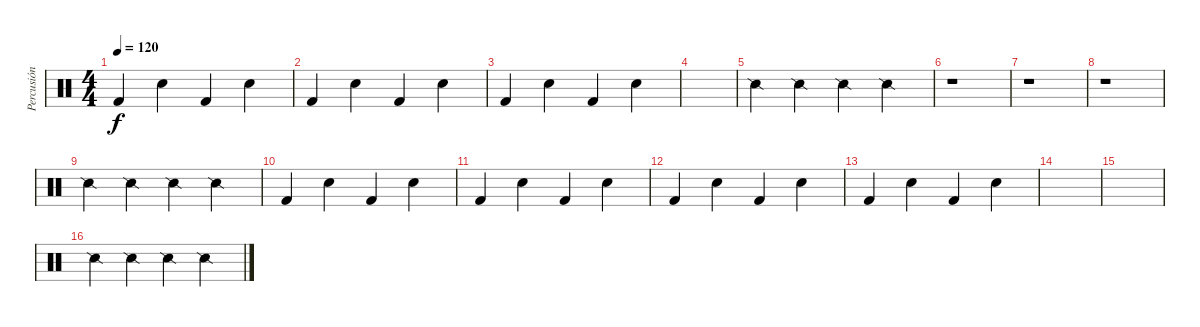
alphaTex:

\track ("Percusión" "Percusión") {instrument percussion}
\staff {score}
\articulation defaults
\ts (4 4)
\tempo 120
\clef neutral
\ks c "Kick (hit) 2".4{dy f} "Snare (hit) 2".4 "Kick (hit) 2".4 "Snare (hit) 2".4
|
"Kick (hit) 2".4 "Snare (hit) 2".4 "Kick (hit) 2".4 "Snare (hit) 2".4 |
"Kick (hit) 2".4 "Snare (hit) 2".4 "Kick (hit) 2".4 "Snare (hit) 2".4 |
|
"Snare (side stick) 2".4 "Snare (side stick) 2".4 "Snare (side stick) 2".4 "Snare (side stick) 2".4 |
r.1 |
r.1 |
r.1 |
"Snare (side stick) 2".4 "Snare (side stick) 2".4 "Snare (side stick) 2".4 "Snare (side stick) 2".4 |
"Kick (hit) 2".4 "Snare (hit) 2".4 "Kick (hit) 2".4 "Snare (hit) 2".4 |
"Kick (hit) 2".4 "Snare (hit) 2".4 "Kick (hit) 2".4 "Snare (hit) 2".4 |
"Kick (hit) 2".4 "Snare (hit) 2".4 "Kick (hit) 2".4 "Snare (hit) 2".4 |
"Kick (hit) 2".4 "Snare (hit) 2".4 "Kick (hit) 2".4 "Snare (hit) 2".4 |
|
|
"Snare (side stick) 2".4 "Snare (side stick) 2".4 "Snare (side stick) 2".4 "Snare (side stick) 2".4
